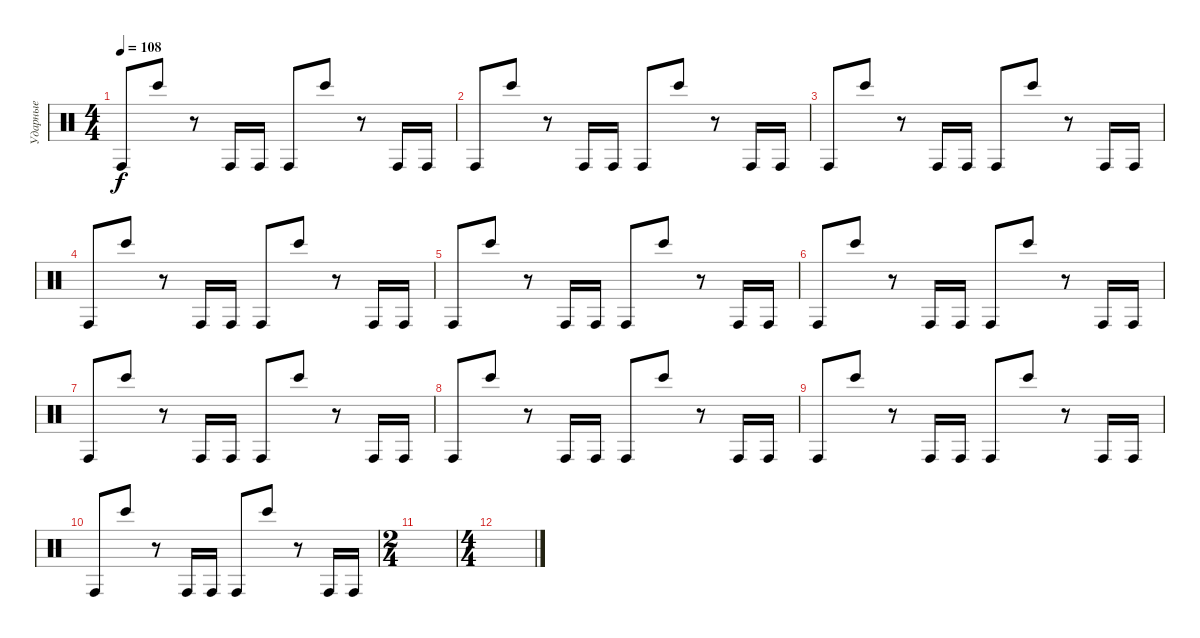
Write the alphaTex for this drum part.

\track ("Ударные" "Ударные") {instrument percussion}
\staff {score}
\articulation defaults
\ts (4 4)
\tempo 108
\clef neutral
\ks c "Conga high (hit)".8{dy f} "Bongo High (hit)".8
r.8 "Conga high (hit)".16 "Conga high (hit)".16 "Conga high (hit)".8 "Bongo High (hit)".8 r.8 "Conga high (hit)".16 "Conga high (hit)".16 |
"Conga high (hit)".8 "Bongo High (hit)".8 r.8 "Conga high (hit)".16 "Conga high (hit)".16 "Conga high (hit)".8 "Bongo High (hit)".8 r.8 "Conga high (hit)".16 "Conga high (hit)".16 |
"Conga high (hit)".8 "Bongo High (hit)".8 r.8 "Conga high (hit)".16 "Conga high (hit)".16 "Conga high (hit)".8 "Bongo High (hit)".8 r.8 "Conga high (hit)".16 "Conga high (hit)".16 |
"Conga high (hit)".8 "Bongo High (hit)".8 r.8 "Conga high (hit)".16 "Conga high (hit)".16 "Conga high (hit)".8 "Bongo High (hit)".8 r.8 "Conga high (hit)".16 "Conga high (hit)".16 |
"Conga high (hit)".8 "Bongo High (hit)".8 r.8 "Conga high (hit)".16 "Conga high (hit)".16 "Conga high (hit)".8 "Bongo High (hit)".8 r.8 "Conga high (hit)".16 "Conga high (hit)".16 |
"Conga high (hit)".8 "Bongo High (hit)".8 r.8 "Conga high (hit)".16 "Conga high (hit)".16 "Conga high (hit)".8 "Bongo High (hit)".8 r.8 "Conga high (hit)".16 "Conga high (hit)".16 |
"Conga high (hit)".8 "Bongo High (hit)".8 r.8 "Conga high (hit)".16 "Conga high (hit)".16 "Conga high (hit)".8 "Bongo High (hit)".8 r.8 "Conga high (hit)".16 "Conga high (hit)".16 |
"Conga high (hit)".8 "Bongo High (hit)".8 r.8 "Conga high (hit)".16 "Conga high (hit)".16 "Conga high (hit)".8 "Bongo High (hit)".8 r.8 "Conga high (hit)".16 "Conga high (hit)".16 |
"Conga high (hit)".8 "Bongo High (hit)".8 r.8 "Conga high (hit)".16 "Conga high (hit)".16 "Conga high (hit)".8 "Bongo High (hit)".8 r.8 "Conga high (hit)".16 "Conga high (hit)".16 |
"Conga high (hit)".8 "Bongo High (hit)".8 r.8 "Conga high (hit)".16 "Conga high (hit)".16 "Conga high (hit)".8 "Bongo High (hit)".8 r.8 "Conga high (hit)".16 "Conga high (hit)".16 |
\ts (2 4)
|
\ts (4 4)
